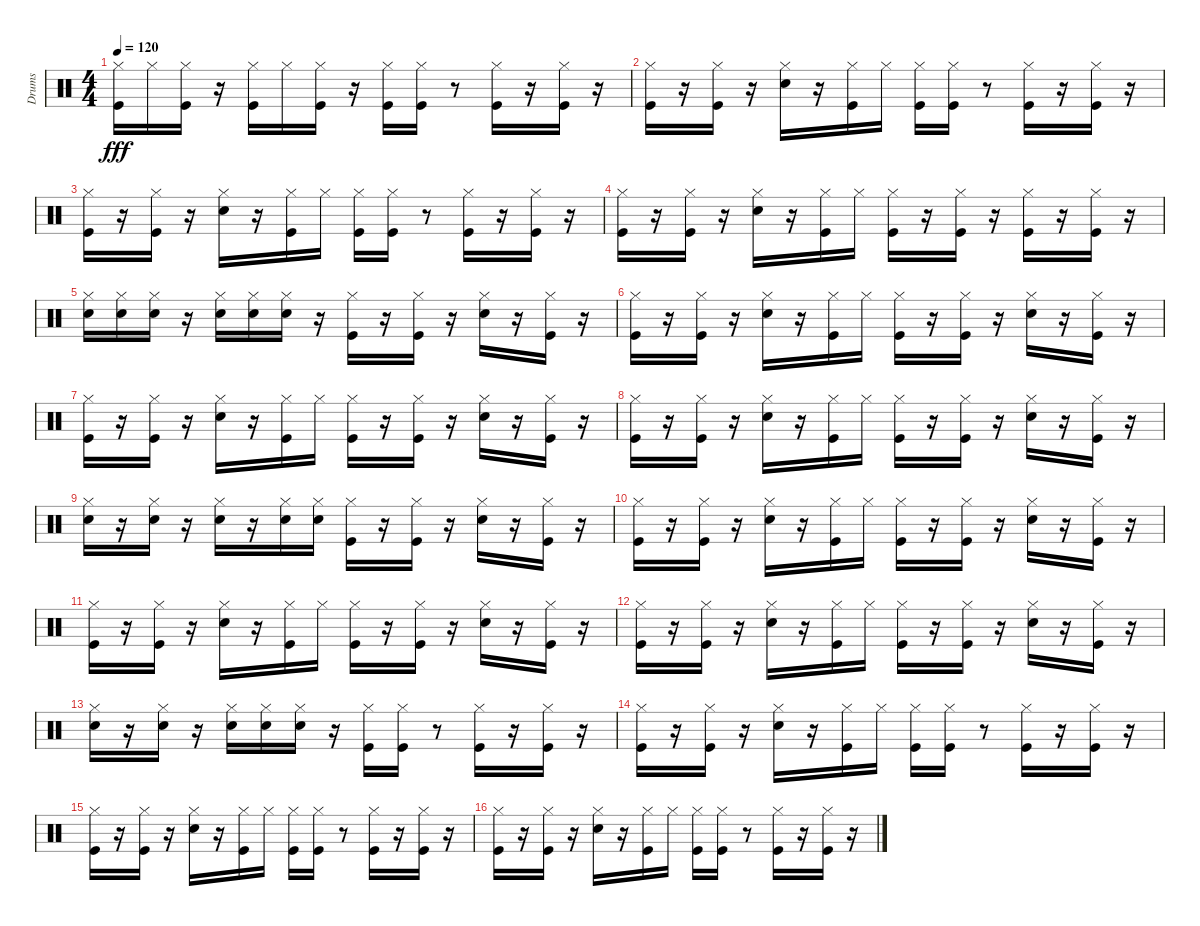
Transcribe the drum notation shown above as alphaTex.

\track ("Drums" "Drums") {instrument percussion}
\staff {score}
\articulation defaults
\ts (4 4)
\tempo 120
\clef neutral
\ks c
("Kick (hit)" "Hi-Hat (closed)").16{dy fff} "Hi-Hat (closed)".16 ("Kick (hit)" "Hi-Hat (closed)").16 r.16 ("Kick (hit)" "Hi-Hat (closed)").16 "Hi-Hat (closed)".16 ("Kick (hit)" "Hi-Hat (closed)").16 r.16 ("Kick (hit)" "Hi-Hat (closed)").16 ("Kick (hit)" "Hi-Hat (closed)").16 r.8 ("Kick (hit)" "Hi-Hat (closed)").16 r.16 ("Kick (hit)" "Hi-Hat (closed)").16 r.16 |
("Kick (hit)" "Hi-Hat (closed)").16 r.16 ("Kick (hit)" "Hi-Hat (closed)").16 r.16 ("Snare (hit) 2" "Hi-Hat (closed)").16 r.16 ("Kick (hit)" "Hi-Hat (closed)").16 "Hi-Hat (closed)".16 ("Kick (hit)" "Hi-Hat (closed)").16 ("Kick (hit)" "Hi-Hat (closed)").16 r.8 ("Kick (hit)" "Hi-Hat (closed)").16 r.16 ("Kick (hit)" "Hi-Hat (closed)").16 r.16 |
("Kick (hit)" "Hi-Hat (closed)").16 r.16 ("Kick (hit)" "Hi-Hat (closed)").16 r.16 ("Snare (hit) 2" "Hi-Hat (closed)").16 r.16 ("Kick (hit)" "Hi-Hat (closed)").16 "Hi-Hat (closed)".16 ("Kick (hit)" "Hi-Hat (closed)").16 ("Kick (hit)" "Hi-Hat (closed)").16 r.8 ("Kick (hit)" "Hi-Hat (closed)").16 r.16 ("Kick (hit)" "Hi-Hat (closed)").16 r.16 |
("Kick (hit)" "Hi-Hat (closed)").16 r.16 ("Kick (hit)" "Hi-Hat (closed)").16 r.16 ("Snare (hit) 2" "Hi-Hat (closed)").16 r.16 ("Kick (hit)" "Hi-Hat (closed)").16 "Hi-Hat (closed)".16 ("Kick (hit)" "Hi-Hat (closed)").16 r.16 ("Kick (hit)" "Hi-Hat (closed)").16 r.16 ("Kick (hit)" "Hi-Hat (closed)").16 r.16 ("Kick (hit)" "Hi-Hat (closed)").16 r.16 |
("Snare (hit) 2" "Hi-Hat (closed)").16 ("Snare (hit) 2" "Hi-Hat (closed)").16 ("Snare (hit) 2" "Hi-Hat (closed)").16 r.16 ("Snare (hit) 2" "Hi-Hat (closed)").16 ("Snare (hit) 2" "Hi-Hat (closed)").16 ("Snare (hit) 2" "Hi-Hat (closed)").16 r.16 ("Kick (hit)" "Hi-Hat (closed)").16 r.16 ("Kick (hit)" "Hi-Hat (closed)").16 r.16 ("Snare (hit) 2" "Hi-Hat (closed)").16 r.16 ("Kick (hit)" "Hi-Hat (closed)").16 r.16 |
("Kick (hit)" "Hi-Hat (closed)").16 r.16 ("Kick (hit)" "Hi-Hat (closed)").16 r.16 ("Snare (hit) 2" "Hi-Hat (closed)").16 r.16 ("Kick (hit)" "Hi-Hat (closed)").16 "Hi-Hat (closed)".16 ("Kick (hit)" "Hi-Hat (closed)").16 r.16 ("Kick (hit)" "Hi-Hat (closed)").16 r.16 ("Snare (hit) 2" "Hi-Hat (closed)").16 r.16 ("Kick (hit)" "Hi-Hat (closed)").16 r.16 |
("Kick (hit)" "Hi-Hat (closed)").16 r.16 ("Kick (hit)" "Hi-Hat (closed)").16 r.16 ("Snare (hit) 2" "Hi-Hat (closed)").16 r.16 ("Kick (hit)" "Hi-Hat (closed)").16 "Hi-Hat (closed)".16 ("Kick (hit)" "Hi-Hat (closed)").16 r.16 ("Kick (hit)" "Hi-Hat (closed)").16 r.16 ("Snare (hit) 2" "Hi-Hat (closed)").16 r.16 ("Kick (hit)" "Hi-Hat (closed)").16 r.16 |
("Kick (hit)" "Hi-Hat (closed)").16 r.16 ("Kick (hit)" "Hi-Hat (closed)").16 r.16 ("Snare (hit) 2" "Hi-Hat (closed)").16 r.16 ("Kick (hit)" "Hi-Hat (closed)").16 "Hi-Hat (closed)".16 ("Kick (hit)" "Hi-Hat (closed)").16 r.16 ("Kick (hit)" "Hi-Hat (closed)").16 r.16 ("Snare (hit) 2" "Hi-Hat (closed)").16 r.16 ("Kick (hit)" "Hi-Hat (closed)").16 r.16 |
("Snare (hit) 2" "Hi-Hat (closed)").16 r.16 ("Snare (hit) 2" "Hi-Hat (closed)").16 r.16 ("Snare (hit) 2" "Hi-Hat (closed)").16 r.16 ("Snare (hit) 2" "Hi-Hat (closed)").16 ("Snare (hit) 2" "Hi-Hat (closed)").16 ("Kick (hit)" "Hi-Hat (closed)").16 r.16 ("Kick (hit)" "Hi-Hat (closed)").16 r.16 ("Snare (hit) 2" "Hi-Hat (closed)").16 r.16 ("Kick (hit)" "Hi-Hat (closed)").16 r.16 |
("Kick (hit)" "Hi-Hat (closed)").16 r.16 ("Kick (hit)" "Hi-Hat (closed)").16 r.16 ("Snare (hit) 2" "Hi-Hat (closed)").16 r.16 ("Kick (hit)" "Hi-Hat (closed)").16 "Hi-Hat (closed)".16 ("Kick (hit)" "Hi-Hat (closed)").16 r.16 ("Kick (hit)" "Hi-Hat (closed)").16 r.16 ("Snare (hit) 2" "Hi-Hat (closed)").16 r.16 ("Kick (hit)" "Hi-Hat (closed)").16 r.16 |
("Kick (hit)" "Hi-Hat (closed)").16 r.16 ("Kick (hit)" "Hi-Hat (closed)").16 r.16 ("Snare (hit) 2" "Hi-Hat (closed)").16 r.16 ("Kick (hit)" "Hi-Hat (closed)").16 "Hi-Hat (closed)".16 ("Kick (hit)" "Hi-Hat (closed)").16 r.16 ("Kick (hit)" "Hi-Hat (closed)").16 r.16 ("Snare (hit) 2" "Hi-Hat (closed)").16 r.16 ("Kick (hit)" "Hi-Hat (closed)").16 r.16 |
("Kick (hit)" "Hi-Hat (closed)").16 r.16 ("Kick (hit)" "Hi-Hat (closed)").16 r.16 ("Snare (hit) 2" "Hi-Hat (closed)").16 r.16 ("Kick (hit)" "Hi-Hat (closed)").16 "Hi-Hat (closed)".16 ("Kick (hit)" "Hi-Hat (closed)").16 r.16 ("Kick (hit)" "Hi-Hat (closed)").16 r.16 ("Snare (hit) 2" "Hi-Hat (closed)").16 r.16 ("Kick (hit)" "Hi-Hat (closed)").16 r.16 |
("Snare (hit) 2" "Hi-Hat (closed)").16 r.16 ("Snare (hit) 2" "Hi-Hat (closed)").16 r.16 ("Snare (hit) 2" "Hi-Hat (closed)").16 ("Snare (hit) 2" "Hi-Hat (closed)").16 ("Snare (hit) 2" "Hi-Hat (closed)").16 r.16 ("Kick (hit)" "Hi-Hat (closed)").16 ("Kick (hit)" "Hi-Hat (closed)").16 r.8 ("Kick (hit)" "Hi-Hat (closed)").16 r.16 ("Kick (hit)" "Hi-Hat (closed)").16 r.16 |
("Kick (hit)" "Hi-Hat (closed)").16 r.16 ("Kick (hit)" "Hi-Hat (closed)").16 r.16 ("Snare (hit) 2" "Hi-Hat (closed)").16 r.16 ("Kick (hit)" "Hi-Hat (closed)").16 "Hi-Hat (closed)".16 ("Kick (hit)" "Hi-Hat (closed)").16 ("Kick (hit)" "Hi-Hat (closed)").16 r.8 ("Kick (hit)" "Hi-Hat (closed)").16 r.16 ("Kick (hit)" "Hi-Hat (closed)").16 r.16 |
("Kick (hit)" "Hi-Hat (closed)").16 r.16 ("Kick (hit)" "Hi-Hat (closed)").16 r.16 ("Snare (hit) 2" "Hi-Hat (closed)").16 r.16 ("Kick (hit)" "Hi-Hat (closed)").16 "Hi-Hat (closed)".16 ("Kick (hit)" "Hi-Hat (closed)").16 ("Kick (hit)" "Hi-Hat (closed)").16 r.8 ("Kick (hit)" "Hi-Hat (closed)").16 r.16 ("Kick (hit)" "Hi-Hat (closed)").16 r.16 |
("Kick (hit)" "Hi-Hat (closed)").16 r.16 ("Kick (hit)" "Hi-Hat (closed)").16 r.16 ("Snare (hit) 2" "Hi-Hat (closed)").16 r.16 ("Kick (hit)" "Hi-Hat (closed)").16 "Hi-Hat (closed)".16 ("Kick (hit)" "Hi-Hat (closed)").16 ("Kick (hit)" "Hi-Hat (closed)").16 r.8 ("Kick (hit)" "Hi-Hat (closed)").16 r.16 ("Kick (hit)" "Hi-Hat (closed)").16 r.16
